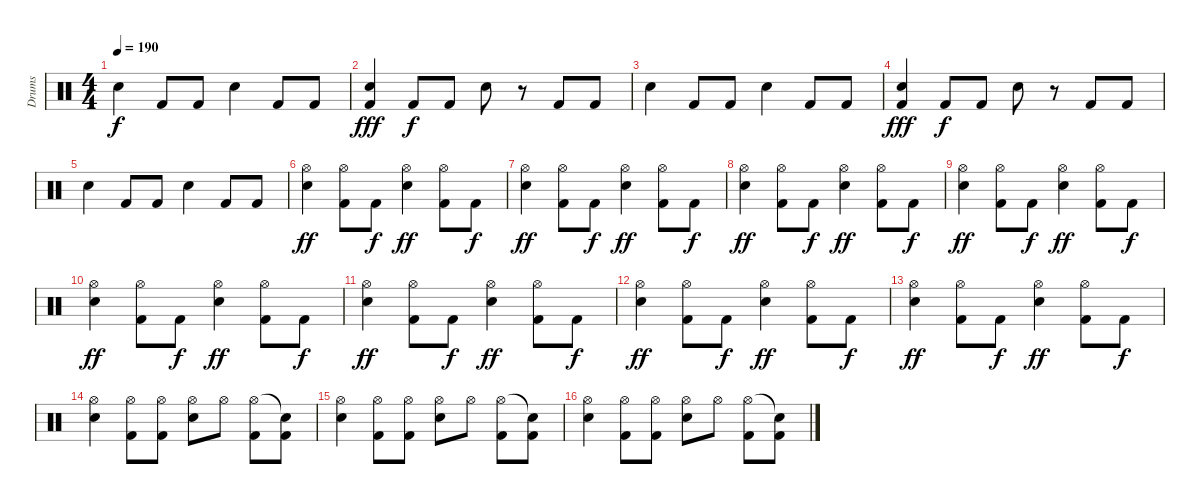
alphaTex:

\track ("Drums" "Drums") {instrument percussion}
\staff {score}
\articulation defaults
\ts (4 4)
\tempo 190
\clef neutral
\ks c "Electric Snare (hit)".4{dy f} "Kick (hit) 2".8 "Kick (hit) 2".8 "Electric Snare (hit)".4 "Kick (hit) 2".8 "Kick (hit) 2".8
|
("Electric Snare (hit)" "Kick (hit) 2").4{dy fff} "Kick (hit) 2".8{dy f} "Kick (hit) 2".8 "Electric Snare (hit)".8 r.8 "Kick (hit) 2".8 "Kick (hit) 2".8 |
"Electric Snare (hit)".4 "Kick (hit) 2".8 "Kick (hit) 2".8 "Electric Snare (hit)".4 "Kick (hit) 2".8 "Kick (hit) 2".8 |
("Electric Snare (hit)" "Kick (hit) 2").4{dy fff} "Kick (hit) 2".8{dy f} "Kick (hit) 2".8 "Electric Snare (hit)".8 r.8 "Kick (hit) 2".8 "Kick (hit) 2".8 |
"Electric Snare (hit)".4 "Kick (hit) 2".8 "Kick (hit) 2".8 "Electric Snare (hit)".4 "Kick (hit) 2".8 "Kick (hit) 2".8 |
("Electric Snare (hit)" "Hi-Hat (open)").4{dy ff} ("Kick (hit) 2" "Hi-Hat (open)").8 "Kick (hit) 2".8{dy f} ("Electric Snare (hit)" "Hi-Hat (open)").4{dy ff} ("Kick (hit) 2" "Hi-Hat (open)").8 "Kick (hit) 2".8{dy f} |
("Electric Snare (hit)" "Hi-Hat (open)").4{dy ff} ("Kick (hit) 2" "Hi-Hat (open)").8 "Kick (hit) 2".8{dy f} ("Electric Snare (hit)" "Hi-Hat (open)").4{dy ff} ("Kick (hit) 2" "Hi-Hat (open)").8 "Kick (hit) 2".8{dy f} |
("Electric Snare (hit)" "Hi-Hat (open)").4{dy ff} ("Kick (hit) 2" "Hi-Hat (open)").8 "Kick (hit) 2".8{dy f} ("Electric Snare (hit)" "Hi-Hat (open)").4{dy ff} ("Kick (hit) 2" "Hi-Hat (open)").8 "Kick (hit) 2".8{dy f} |
("Electric Snare (hit)" "Hi-Hat (open)").4{dy ff} ("Kick (hit) 2" "Hi-Hat (open)").8 "Kick (hit) 2".8{dy f} ("Electric Snare (hit)" "Hi-Hat (open)").4{dy ff} ("Kick (hit) 2" "Hi-Hat (open)").8 "Kick (hit) 2".8{dy f} |
("Electric Snare (hit)" "Hi-Hat (open)").4{dy ff} ("Kick (hit) 2" "Hi-Hat (open)").8 "Kick (hit) 2".8{dy f} ("Electric Snare (hit)" "Hi-Hat (open)").4{dy ff} ("Kick (hit) 2" "Hi-Hat (open)").8 "Kick (hit) 2".8{dy f} |
("Electric Snare (hit)" "Hi-Hat (open)").4{dy ff} ("Kick (hit) 2" "Hi-Hat (open)").8 "Kick (hit) 2".8{dy f} ("Electric Snare (hit)" "Hi-Hat (open)").4{dy ff} ("Kick (hit) 2" "Hi-Hat (open)").8 "Kick (hit) 2".8{dy f} |
("Electric Snare (hit)" "Hi-Hat (open)").4{dy ff} ("Kick (hit) 2" "Hi-Hat (open)").8 "Kick (hit) 2".8{dy f} ("Electric Snare (hit)" "Hi-Hat (open)").4{dy ff} ("Kick (hit) 2" "Hi-Hat (open)").8 "Kick (hit) 2".8{dy f} |
("Electric Snare (hit)" "Hi-Hat (open)").4{dy ff} ("Kick (hit) 2" "Hi-Hat (open)").8 "Kick (hit) 2".8{dy f} ("Electric Snare (hit)" "Hi-Hat (open)").4{dy ff} ("Kick (hit) 2" "Hi-Hat (open)").8 "Kick (hit) 2".8{dy f} |
("Electric Snare (hit)" "Hi-Hat (open)").4 ("Hi-Hat (open)" "Kick (hit) 2").8 ("Hi-Hat (open)" "Kick (hit) 2").8 ("Hi-Hat (open)" "Electric Snare (hit)").8 "Hi-Hat (open)".8 ("Kick (hit) 2" "Hi-Hat (open)").8 ("Kick (hit) 2" "Snare (hit)"{t}).8 |
("Electric Snare (hit)" "Hi-Hat (open)").4 ("Hi-Hat (open)" "Kick (hit) 2").8 ("Hi-Hat (open)" "Kick (hit) 2").8 ("Hi-Hat (open)" "Electric Snare (hit)").8 "Hi-Hat (open)".8 ("Kick (hit) 2" "Hi-Hat (open)").8 ("Kick (hit) 2" "Snare (hit)"{t}).8 |
("Electric Snare (hit)" "Hi-Hat (open)").4 ("Hi-Hat (open)" "Kick (hit) 2").8 ("Hi-Hat (open)" "Kick (hit) 2").8 ("Hi-Hat (open)" "Electric Snare (hit)").8 "Hi-Hat (open)".8 ("Kick (hit) 2" "Hi-Hat (open)").8 ("Kick (hit) 2" "Snare (hit)"{t}).8
